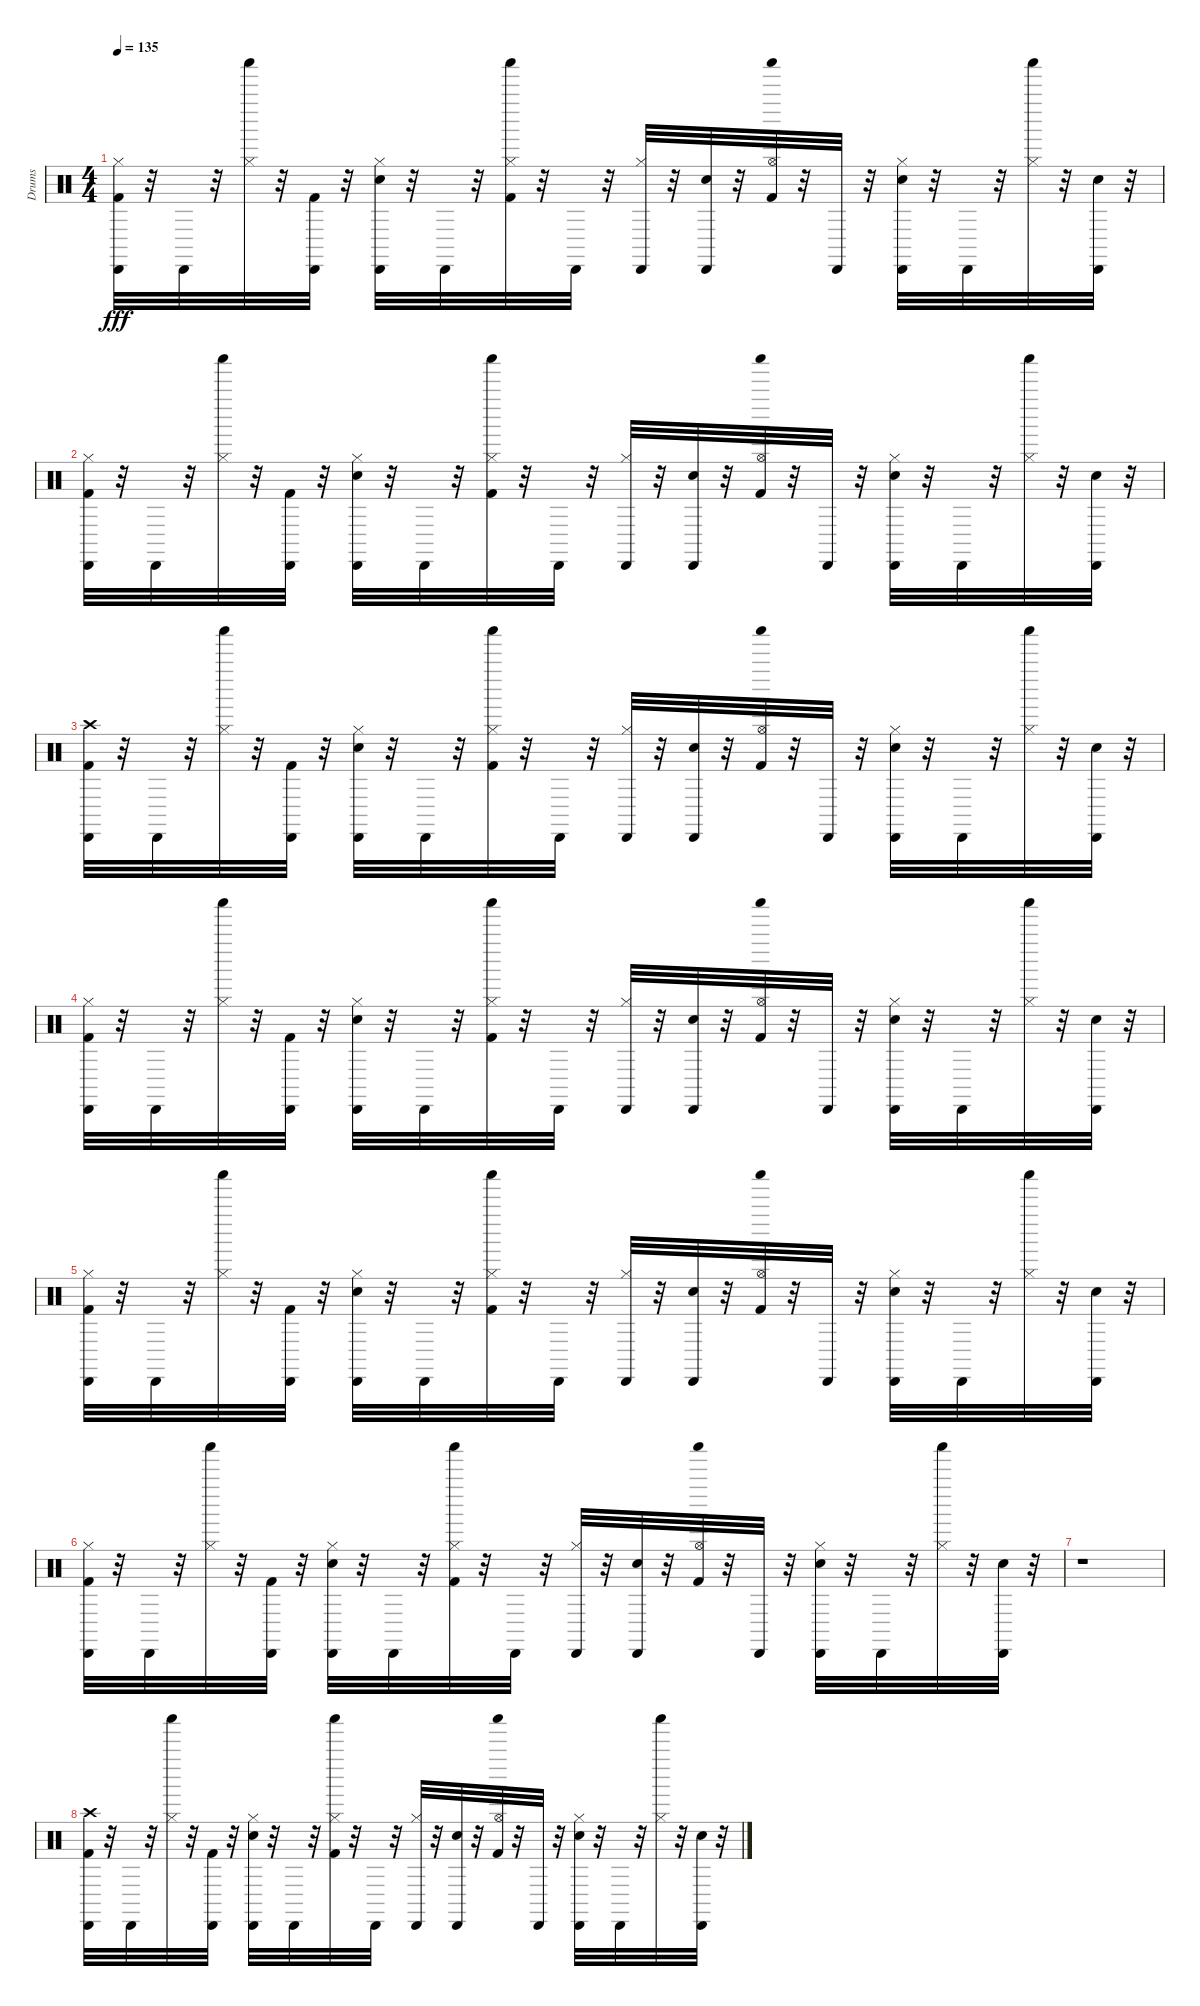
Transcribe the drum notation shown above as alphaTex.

\track ("Drums" "Drums") {instrument percussion}
\staff {score}
\articulation defaults
\ts (4 4)
\tempo 135
\clef neutral
\ks c
("Hi-Hat (closed)" "Kick (hit) 2" "Cabasa (hit)").32{dy fff} r.32 "Cabasa (hit)".32 r.32 ("Shaker (hit)" "Hi-Hat (closed)").32 r.32 ("Kick (hit) 2" "Cabasa (hit)").32 r.32 ("Snare (hit) 2" "Hi-Hat (closed)" "Cabasa (hit)").32 r.32 "Cabasa (hit)".32 r.32 ("Kick (hit) 2" "Shaker (hit)" "Hi-Hat (closed)").32 r.32 "Cabasa (hit)".32 r.32 ("Hi-Hat (closed)" "Cabasa (hit)").32 r.32 ("Snare (hit) 2" "Cabasa (hit)").32 r.32 ("Kick (hit) 2" "Shaker (hit)" "Hi-Hat (open)").32 r.32 "Cabasa (hit)".32 r.32 ("Snare (hit) 2" "Hi-Hat (closed)" "Cabasa (hit)").32 r.32 "Cabasa (hit)".32 r.32 ("Shaker (hit)" "Hi-Hat (closed)").32 r.32 ("Snare (hit) 2" "Cabasa (hit)").32 r.32 |
("Hi-Hat (closed)" "Kick (hit) 2" "Cabasa (hit)").32 r.32 "Cabasa (hit)".32 r.32 ("Shaker (hit)" "Hi-Hat (closed)").32 r.32 ("Kick (hit) 2" "Cabasa (hit)").32 r.32 ("Snare (hit) 2" "Hi-Hat (closed)" "Cabasa (hit)").32 r.32 "Cabasa (hit)".32 r.32 ("Kick (hit) 2" "Shaker (hit)" "Hi-Hat (closed)").32 r.32 "Cabasa (hit)".32 r.32 ("Hi-Hat (closed)" "Cabasa (hit)").32 r.32 ("Snare (hit) 2" "Cabasa (hit)").32 r.32 ("Kick (hit) 2" "Shaker (hit)" "Hi-Hat (open)").32 r.32 "Cabasa (hit)".32 r.32 ("Snare (hit) 2" "Hi-Hat (closed)" "Cabasa (hit)").32 r.32 "Cabasa (hit)".32 r.32 ("Shaker (hit)" "Hi-Hat (closed)").32 r.32 ("Snare (hit) 2" "Cabasa (hit)").32 r.32 |
("Crash high (hit)" "Kick (hit) 2" "Cabasa (hit)").32 r.32 "Cabasa (hit)".32 r.32 ("Shaker (hit)" "Hi-Hat (closed)").32 r.32 ("Kick (hit) 2" "Cabasa (hit)").32 r.32 ("Snare (hit) 2" "Hi-Hat (closed)" "Cabasa (hit)").32 r.32 "Cabasa (hit)".32 r.32 ("Kick (hit) 2" "Shaker (hit)" "Hi-Hat (closed)").32 r.32 "Cabasa (hit)".32 r.32 ("Hi-Hat (closed)" "Cabasa (hit)").32 r.32 ("Snare (hit) 2" "Cabasa (hit)").32 r.32 ("Kick (hit) 2" "Shaker (hit)" "Hi-Hat (open)").32 r.32 "Cabasa (hit)".32 r.32 ("Snare (hit) 2" "Hi-Hat (closed)" "Cabasa (hit)").32 r.32 "Cabasa (hit)".32 r.32 ("Shaker (hit)" "Hi-Hat (closed)").32 r.32 ("Snare (hit) 2" "Cabasa (hit)").32 r.32 |
("Hi-Hat (closed)" "Kick (hit) 2" "Cabasa (hit)").32 r.32 "Cabasa (hit)".32 r.32 ("Shaker (hit)" "Hi-Hat (closed)").32 r.32 ("Kick (hit) 2" "Cabasa (hit)").32 r.32 ("Snare (hit) 2" "Hi-Hat (closed)" "Cabasa (hit)").32 r.32 "Cabasa (hit)".32 r.32 ("Kick (hit) 2" "Shaker (hit)" "Hi-Hat (closed)").32 r.32 "Cabasa (hit)".32 r.32 ("Hi-Hat (closed)" "Cabasa (hit)").32 r.32 ("Snare (hit) 2" "Cabasa (hit)").32 r.32 ("Kick (hit) 2" "Shaker (hit)" "Hi-Hat (open)").32 r.32 "Cabasa (hit)".32 r.32 ("Snare (hit) 2" "Hi-Hat (closed)" "Cabasa (hit)").32 r.32 "Cabasa (hit)".32 r.32 ("Shaker (hit)" "Hi-Hat (closed)").32 r.32 ("Snare (hit) 2" "Cabasa (hit)").32 r.32 |
("Hi-Hat (closed)" "Kick (hit) 2" "Cabasa (hit)").32 r.32 "Cabasa (hit)".32 r.32 ("Shaker (hit)" "Hi-Hat (closed)").32 r.32 ("Kick (hit) 2" "Cabasa (hit)").32 r.32 ("Snare (hit) 2" "Hi-Hat (closed)" "Cabasa (hit)").32 r.32 "Cabasa (hit)".32 r.32 ("Kick (hit) 2" "Shaker (hit)" "Hi-Hat (closed)").32 r.32 "Cabasa (hit)".32 r.32 ("Hi-Hat (closed)" "Cabasa (hit)").32 r.32 ("Snare (hit) 2" "Cabasa (hit)").32 r.32 ("Kick (hit) 2" "Shaker (hit)" "Hi-Hat (open)").32 r.32 "Cabasa (hit)".32 r.32 ("Snare (hit) 2" "Hi-Hat (closed)" "Cabasa (hit)").32 r.32 "Cabasa (hit)".32 r.32 ("Shaker (hit)" "Hi-Hat (closed)").32 r.32 ("Snare (hit) 2" "Cabasa (hit)").32 r.32 |
("Hi-Hat (closed)" "Kick (hit) 2" "Cabasa (hit)").32 r.32 "Cabasa (hit)".32 r.32 ("Shaker (hit)" "Hi-Hat (closed)").32 r.32 ("Kick (hit) 2" "Cabasa (hit)").32 r.32 ("Snare (hit) 2" "Hi-Hat (closed)" "Cabasa (hit)").32 r.32 "Cabasa (hit)".32 r.32 ("Kick (hit) 2" "Shaker (hit)" "Hi-Hat (closed)").32 r.32 "Cabasa (hit)".32 r.32 ("Hi-Hat (closed)" "Cabasa (hit)").32 r.32 ("Snare (hit) 2" "Cabasa (hit)").32 r.32 ("Kick (hit) 2" "Shaker (hit)" "Hi-Hat (open)").32 r.32 "Cabasa (hit)".32 r.32 ("Snare (hit) 2" "Hi-Hat (closed)" "Cabasa (hit)").32 r.32 "Cabasa (hit)".32 r.32 ("Shaker (hit)" "Hi-Hat (closed)").32 r.32 ("Snare (hit) 2" "Cabasa (hit)").32 r.32 |
r.1 |
("Crash high (hit)" "Kick (hit) 2" "Cabasa (hit)").32 r.32 "Cabasa (hit)".32 r.32 ("Shaker (hit)" "Hi-Hat (closed)").32 r.32 ("Kick (hit) 2" "Cabasa (hit)").32 r.32 ("Snare (hit) 2" "Hi-Hat (closed)" "Cabasa (hit)").32 r.32 "Cabasa (hit)".32 r.32 ("Kick (hit) 2" "Shaker (hit)" "Hi-Hat (closed)").32 r.32 "Cabasa (hit)".32 r.32 ("Hi-Hat (closed)" "Cabasa (hit)").32 r.32 ("Snare (hit) 2" "Cabasa (hit)").32 r.32 ("Kick (hit) 2" "Shaker (hit)" "Hi-Hat (open)").32 r.32 "Cabasa (hit)".32 r.32 ("Snare (hit) 2" "Hi-Hat (closed)" "Cabasa (hit)").32 r.32 "Cabasa (hit)".32 r.32 ("Shaker (hit)" "Hi-Hat (closed)").32 r.32 ("Snare (hit) 2" "Cabasa (hit)").32 r.32
